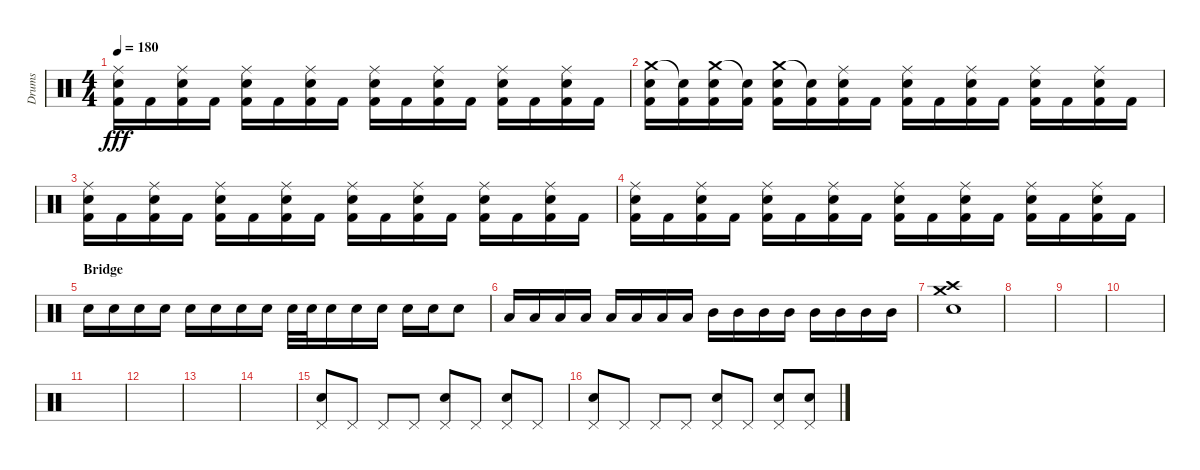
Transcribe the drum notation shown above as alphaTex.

\track ("Drums" "Drums") {instrument percussion}
\staff {score}
\articulation defaults
\ts (4 4)
\tempo 180
\clef neutral
\ks c
("Ride (middle)" "Electric Snare (hit)" "Kick (hit) 2").16{dy fff} "Kick (hit) 2".16 ("Ride (middle)" "Electric Snare (hit)" "Kick (hit) 2").16 "Kick (hit) 2".16 ("Ride (middle)" "Snare (hit) 2" "Kick (hit) 2").16 "Kick (hit) 2".16 ("Ride (middle)" "Snare (hit) 2" "Kick (hit) 2").16 "Kick (hit) 2".16 ("Ride (middle)" "Electric Snare (hit)" "Kick (hit) 2").16 "Kick (hit) 2".16 ("Ride (middle)" "Electric Snare (hit)" "Kick (hit) 2").16 "Kick (hit) 2".16 ("Ride (middle)" "Snare (hit) 2" "Kick (hit) 2").16 "Kick (hit) 2".16 ("Ride (middle)" "Snare (hit) 2" "Kick (hit) 2").16 "Kick (hit) 2".16 |
("Crash medium (hit)" "Electric Snare (hit)" "Kick (hit) 2").16 ("Snare (hit)"{t} "Kick (hit) 2").16 ("Crash medium (hit)" "Electric Snare (hit)" "Kick (hit) 2").16 ("Snare (hit)"{t} "Kick (hit) 2").16 ("Crash medium (hit)" "Snare (hit) 2" "Kick (hit) 2").16 ("Snare (hit)"{t} "Kick (hit) 2").16 ("Ride (middle)" "Snare (hit) 2" "Kick (hit) 2").16 "Kick (hit) 2".16 ("Ride (middle)" "Electric Snare (hit)" "Kick (hit) 2").16 "Kick (hit) 2".16 ("Ride (middle)" "Electric Snare (hit)" "Kick (hit) 2").16 "Kick (hit) 2".16 ("Ride (middle)" "Snare (hit) 2" "Kick (hit) 2").16 "Kick (hit) 2".16 ("Ride (middle)" "Snare (hit) 2" "Kick (hit) 2").16 "Kick (hit) 2".16 |
("Ride (middle)" "Electric Snare (hit)" "Kick (hit) 2").16 "Kick (hit) 2".16 ("Ride (middle)" "Electric Snare (hit)" "Kick (hit) 2").16 "Kick (hit) 2".16 ("Ride (middle)" "Snare (hit) 2" "Kick (hit) 2").16 "Kick (hit) 2".16 ("Ride (middle)" "Snare (hit) 2" "Kick (hit) 2").16 "Kick (hit) 2".16 ("Ride (middle)" "Electric Snare (hit)" "Kick (hit) 2").16 "Kick (hit) 2".16 ("Ride (middle)" "Electric Snare (hit)" "Kick (hit) 2").16 "Kick (hit) 2".16 ("Ride (middle)" "Snare (hit) 2" "Kick (hit) 2").16 "Kick (hit) 2".16 ("Ride (middle)" "Snare (hit) 2" "Kick (hit) 2").16 "Kick (hit) 2".16 |
("Ride (middle)" "Electric Snare (hit)" "Kick (hit) 2").16 "Kick (hit) 2".16 ("Ride (middle)" "Electric Snare (hit)" "Kick (hit) 2").16 "Kick (hit) 2".16 ("Ride (middle)" "Snare (hit) 2" "Kick (hit) 2").16 "Kick (hit) 2".16 ("Ride (middle)" "Snare (hit) 2" "Kick (hit) 2").16 "Kick (hit) 2".16 ("Ride (middle)" "Electric Snare (hit)" "Kick (hit) 2").16 "Kick (hit) 2".16 ("Ride (middle)" "Electric Snare (hit)" "Kick (hit) 2").16 "Kick (hit) 2".16 ("Ride (middle)" "Snare (hit) 2" "Kick (hit) 2").16 "Kick (hit) 2".16 ("Ride (middle)" "Snare (hit) 2" "Kick (hit) 2").16 "Kick (hit) 2".16 |
\section ("" "Bridge")
"Electric Snare (hit)".16 "Electric Snare (hit)".16 "Electric Snare (hit)".16 "Electric Snare (hit)".16 "Electric Snare (hit)".16 "Electric Snare (hit)".16 "Electric Snare (hit)".16 "Electric Snare (hit)".16 "Snare (hit) 2".32 "Snare (hit) 2".32 "Snare (hit) 2".16 "Snare (hit) 2".16 "Snare (hit) 2".16 "Snare (hit) 2".16 "Snare (hit) 2".16 "Snare (hit) 2".8 |
"Low Tom (hit)".16 "Low Tom (hit)".16 "Low Tom (hit)".16 "Low Tom (hit)".16 "Low Tom (hit)".16 "Low Tom (hit)".16 "Low Tom (hit)".16 "Low Tom (hit)".16 "Mid Tom (hit)".16 "Mid Tom (hit)".16 "Mid Tom (hit)".16 "Mid Tom (hit)".16 "Mid Tom (hit)".16 "Mid Tom (hit)".16 "Mid Tom (hit)".16 "Mid Tom (hit)".16 |
("Electric Snare (hit)" "Crash medium (hit)" "Crash high (hit)").1 |
|
|
|
|
|
|
|
("Electric Snare (hit)" "Pedal Hi-Hat (hit)").8 "Pedal Hi-Hat (hit)".8 "Pedal Hi-Hat (hit)".8 "Pedal Hi-Hat (hit)".8 ("Electric Snare (hit)" "Pedal Hi-Hat (hit)").8 "Pedal Hi-Hat (hit)".8 ("Electric Snare (hit)" "Pedal Hi-Hat (hit)").8 "Pedal Hi-Hat (hit)".8 |
("Electric Snare (hit)" "Pedal Hi-Hat (hit)").8 "Pedal Hi-Hat (hit)".8 "Pedal Hi-Hat (hit)".8 "Pedal Hi-Hat (hit)".8 ("Electric Snare (hit)" "Pedal Hi-Hat (hit)").8 "Pedal Hi-Hat (hit)".8 ("Electric Snare (hit)" "Pedal Hi-Hat (hit)").8 ("Electric Snare (hit)" "Pedal Hi-Hat (hit)").8
